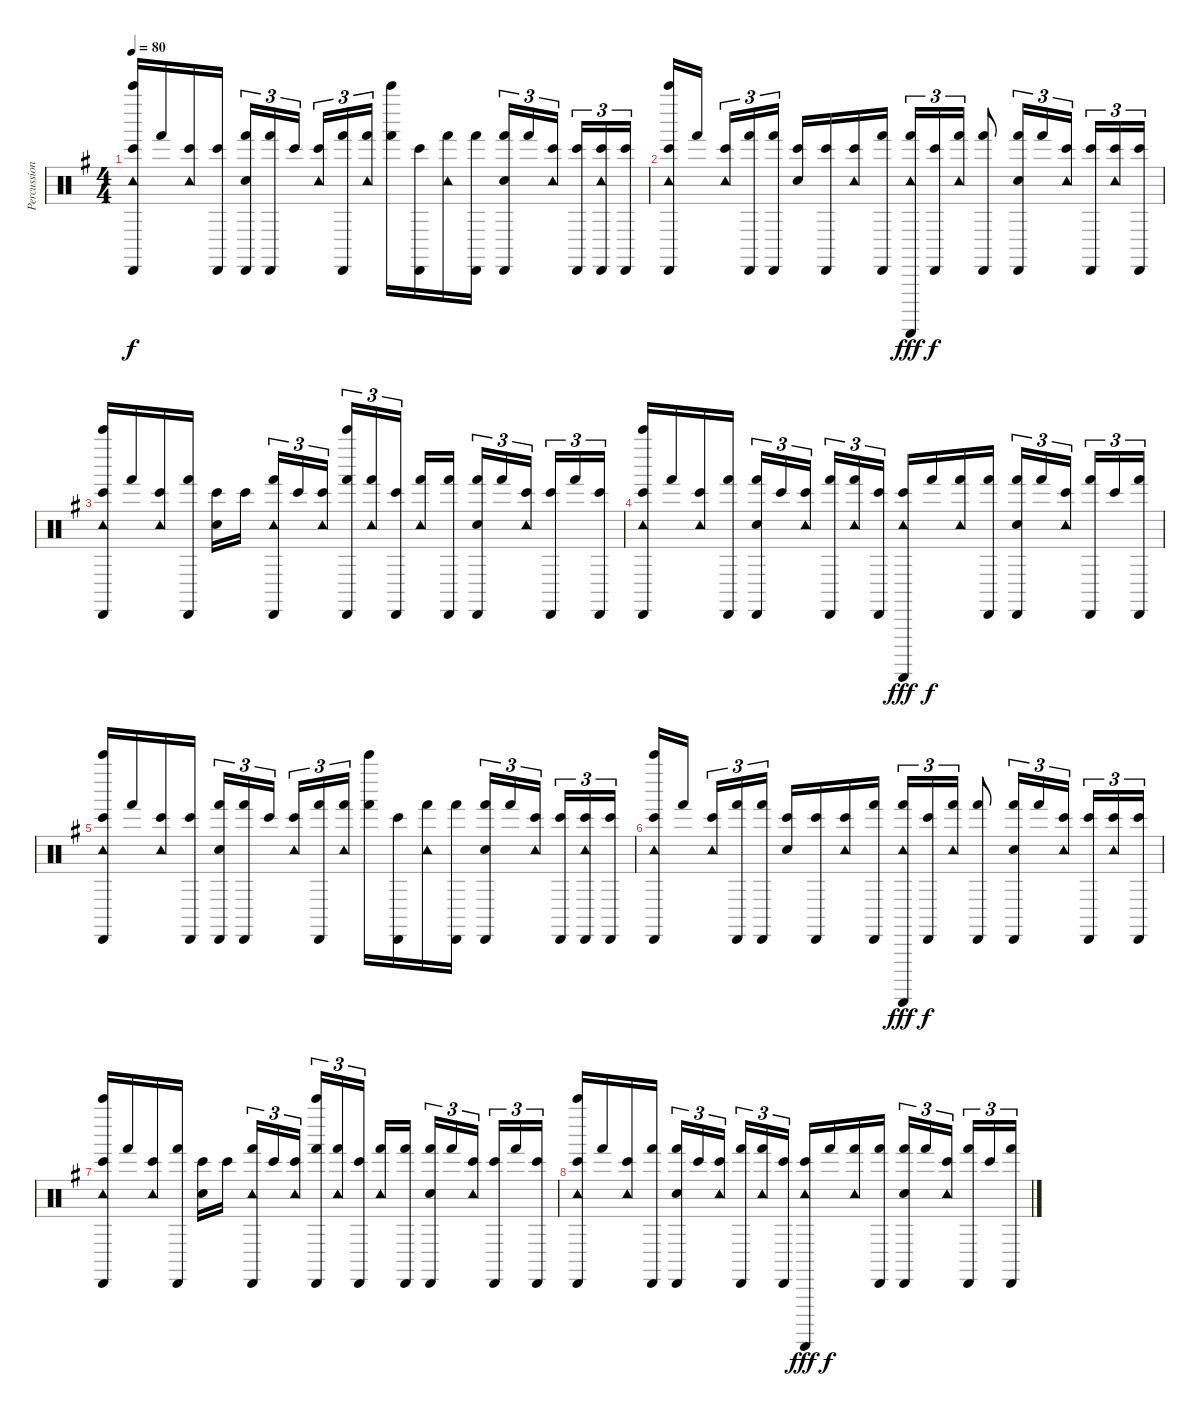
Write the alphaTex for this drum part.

\track ("Percussion" "Percussion") {instrument percussion}
\staff {score}
\articulation defaults
\ts (4 4)
\tempo 80
\clef neutral
\ks g
("Cabasa (hit)" "Bell Tree (hit)" "Tambourine (hit)" "Bongo High (hit)").16{dy f} "Hand (hit)".16 ("Tambourine (hit)" "Bongo High (hit)").16 ("Cabasa (hit)" "Bongo High (hit)").16 ("Cabasa (hit)" "Hand Clap (hit)" "Hand (hit)").16{tu (3 2)} ("Cabasa (hit)" "Hand (hit)").16{tu (3 2)} "Bongo High (hit)".16{tu (3 2)} ("Tambourine (hit)" "Bongo High (hit)").16{tu (3 2)} ("Cabasa (hit)" "Hand (hit)").16{tu (3 2)} ("Tambourine (hit)" "Hand (hit)").16{tu (3 2)} ("Bell Tree (hit)" "Hand (hit)").16 ("Cabasa (hit)" "Bongo High (hit)").16 ("Tambourine (hit)" "Hand (hit)").16 ("Cabasa (hit)" "Hand (hit)").16 ("Cabasa (hit)" "Hand Clap (hit)" "Hand (hit)").16{tu (3 2)} "Hand (hit)".16{tu (3 2)} ("Tambourine (hit)" "Bongo High (hit)").16{tu (3 2)} ("Cabasa (hit)" "Bongo High (hit)").16{tu (3 2)} ("Cabasa (hit)" "Tambourine (hit)" "Bongo High (hit)").16{tu (3 2)} ("Cabasa (hit)" "Bongo High (hit)").16{tu (3 2)} |
("Cabasa (hit)" "Bell Tree (hit)" "Tambourine (hit)" "Bongo High (hit)").16 "Hand (hit)".16 ("Tambourine (hit)" "Bongo High (hit)").16{tu (3 2)} ("Cabasa (hit)" "Hand (hit)").16{tu (3 2)} ("Cabasa (hit)" "Hand (hit)").16{tu (3 2)} ("Hand Clap (hit)" "Bongo High (hit)").16 ("Cabasa (hit)" "Bongo High (hit)").16 ("Tambourine (hit)" "Bongo High (hit)").16 ("Cabasa (hit)" "Hand (hit)").16 ("Guiro (scrap-return)" "Tambourine (hit)" "Hand (hit)").16{tu (3 2) dy fff} ("Cabasa (hit)" "Bongo High (hit)").16{tu (3 2) dy f} ("Tambourine (hit)" "Hand (hit)").16{tu (3 2)} ("Cabasa (hit)" "Hand (hit)").8 ("Cabasa (hit)" "Hand Clap (hit)" "Hand (hit)").16{tu (3 2)} "Hand (hit)".16{tu (3 2)} ("Tambourine (hit)" "Bongo High (hit)").16{tu (3 2)} ("Cabasa (hit)" "Bongo High (hit)").16{tu (3 2)} ("Tambourine (hit)" "Bongo High (hit)").16{tu (3 2)} ("Cabasa (hit)" "Bongo High (hit)").16{tu (3 2)} |
("Cabasa (hit)" "Bell Tree (hit)" "Tambourine (hit)" "Bongo High (hit)").16 "Hand (hit)".16 ("Tambourine (hit)" "Bongo High (hit)").16 ("Cabasa (hit)" "Hand (hit)").16 ("Hand Clap (hit)" "Bongo High (hit)").16 "Bongo High (hit)".16 ("Cabasa (hit)" "Tambourine (hit)" "Hand (hit)").16{tu (3 2)} "Bongo High (hit)".16{tu (3 2)} ("Tambourine (hit)" "Bongo High (hit)").16{tu (3 2)} ("Cabasa (hit)" "Bell Tree (hit)" "Hand (hit)").16{tu (3 2)} ("Tambourine (hit)" "Hand (hit)").16{tu (3 2)} ("Cabasa (hit)" "Bongo High (hit)").16{tu (3 2)} ("Tambourine (hit)" "Hand (hit)").16 ("Cabasa (hit)" "Hand (hit)").16 ("Cabasa (hit)" "Hand Clap (hit)" "Hand (hit)").16{tu (3 2)} "Hand (hit)".16{tu (3 2)} ("Tambourine (hit)" "Bongo High (hit)").16{tu (3 2)} ("Cabasa (hit)" "Bongo High (hit)").16{tu (3 2)} "Hand (hit)".16{tu (3 2)} ("Cabasa (hit)" "Bongo High (hit)").16{tu (3 2)} |
("Cabasa (hit)" "Bell Tree (hit)" "Tambourine (hit)" "Bongo High (hit)").16 "Hand (hit)".16 ("Tambourine (hit)" "Bongo High (hit)").16 ("Cabasa (hit)" "Hand (hit)").16 ("Cabasa (hit)" "Hand Clap (hit)" "Hand (hit)").16{tu (3 2)} "Bongo High (hit)".16{tu (3 2)} ("Tambourine (hit)" "Bongo High (hit)").16{tu (3 2)} ("Cabasa (hit)" "Hand (hit)").16{tu (3 2)} ("Tambourine (hit)" "Hand (hit)").16{tu (3 2)} ("Cabasa (hit)" "Bongo High (hit)").16{tu (3 2)} ("Guiro (scrap-return)" "Tambourine (hit)" "Bongo High (hit)").16{dy fff} "Hand (hit)".16{dy f} ("Tambourine (hit)" "Hand (hit)").16 ("Cabasa (hit)" "Hand (hit)").16 ("Cabasa (hit)" "Hand Clap (hit)" "Hand (hit)").16{tu (3 2)} "Hand (hit)".16{tu (3 2)} ("Tambourine (hit)" "Bongo High (hit)").16{tu (3 2)} ("Cabasa (hit)" "Hand (hit)").16{tu (3 2)} "Bongo High (hit)".16{tu (3 2)} ("Cabasa (hit)" "Hand (hit)").16{tu (3 2)} |
("Cabasa (hit)" "Bell Tree (hit)" "Tambourine (hit)" "Bongo High (hit)").16 "Hand (hit)".16 ("Tambourine (hit)" "Bongo High (hit)").16 ("Cabasa (hit)" "Bongo High (hit)").16 ("Cabasa (hit)" "Hand Clap (hit)" "Hand (hit)").16{tu (3 2)} ("Cabasa (hit)" "Hand (hit)").16{tu (3 2)} "Bongo High (hit)".16{tu (3 2)} ("Tambourine (hit)" "Bongo High (hit)").16{tu (3 2)} ("Cabasa (hit)" "Hand (hit)").16{tu (3 2)} ("Tambourine (hit)" "Hand (hit)").16{tu (3 2)} ("Bell Tree (hit)" "Hand (hit)").16 ("Cabasa (hit)" "Bongo High (hit)").16 ("Tambourine (hit)" "Hand (hit)").16 ("Cabasa (hit)" "Hand (hit)").16 ("Cabasa (hit)" "Hand Clap (hit)" "Hand (hit)").16{tu (3 2)} "Hand (hit)".16{tu (3 2)} ("Tambourine (hit)" "Bongo High (hit)").16{tu (3 2)} ("Cabasa (hit)" "Bongo High (hit)").16{tu (3 2)} ("Cabasa (hit)" "Tambourine (hit)" "Bongo High (hit)").16{tu (3 2)} ("Cabasa (hit)" "Bongo High (hit)").16{tu (3 2)} |
("Cabasa (hit)" "Bell Tree (hit)" "Tambourine (hit)" "Bongo High (hit)").16 "Hand (hit)".16 ("Tambourine (hit)" "Bongo High (hit)").16{tu (3 2)} ("Cabasa (hit)" "Hand (hit)").16{tu (3 2)} ("Cabasa (hit)" "Hand (hit)").16{tu (3 2)} ("Hand Clap (hit)" "Bongo High (hit)").16 ("Cabasa (hit)" "Bongo High (hit)").16 ("Tambourine (hit)" "Bongo High (hit)").16 ("Cabasa (hit)" "Hand (hit)").16 ("Guiro (scrap-return)" "Tambourine (hit)" "Hand (hit)").16{tu (3 2) dy fff} ("Cabasa (hit)" "Bongo High (hit)").16{tu (3 2) dy f} ("Tambourine (hit)" "Hand (hit)").16{tu (3 2)} ("Cabasa (hit)" "Hand (hit)").8 ("Cabasa (hit)" "Hand Clap (hit)" "Hand (hit)").16{tu (3 2)} "Hand (hit)".16{tu (3 2)} ("Tambourine (hit)" "Bongo High (hit)").16{tu (3 2)} ("Cabasa (hit)" "Bongo High (hit)").16{tu (3 2)} ("Tambourine (hit)" "Bongo High (hit)").16{tu (3 2)} ("Cabasa (hit)" "Bongo High (hit)").16{tu (3 2)} |
("Cabasa (hit)" "Bell Tree (hit)" "Tambourine (hit)" "Bongo High (hit)").16 "Hand (hit)".16 ("Tambourine (hit)" "Bongo High (hit)").16 ("Cabasa (hit)" "Hand (hit)").16 ("Hand Clap (hit)" "Bongo High (hit)").16 "Bongo High (hit)".16 ("Cabasa (hit)" "Tambourine (hit)" "Hand (hit)").16{tu (3 2)} "Bongo High (hit)".16{tu (3 2)} ("Tambourine (hit)" "Bongo High (hit)").16{tu (3 2)} ("Cabasa (hit)" "Bell Tree (hit)" "Hand (hit)").16{tu (3 2)} ("Tambourine (hit)" "Hand (hit)").16{tu (3 2)} ("Cabasa (hit)" "Bongo High (hit)").16{tu (3 2)} ("Tambourine (hit)" "Hand (hit)").16 ("Cabasa (hit)" "Hand (hit)").16 ("Cabasa (hit)" "Hand Clap (hit)" "Hand (hit)").16{tu (3 2)} "Hand (hit)".16{tu (3 2)} ("Tambourine (hit)" "Bongo High (hit)").16{tu (3 2)} ("Cabasa (hit)" "Bongo High (hit)").16{tu (3 2)} "Hand (hit)".16{tu (3 2)} ("Cabasa (hit)" "Bongo High (hit)").16{tu (3 2)} |
("Cabasa (hit)" "Bell Tree (hit)" "Tambourine (hit)" "Bongo High (hit)").16 "Hand (hit)".16 ("Tambourine (hit)" "Bongo High (hit)").16 ("Cabasa (hit)" "Hand (hit)").16 ("Cabasa (hit)" "Hand Clap (hit)" "Hand (hit)").16{tu (3 2)} "Bongo High (hit)".16{tu (3 2)} ("Tambourine (hit)" "Bongo High (hit)").16{tu (3 2)} ("Cabasa (hit)" "Hand (hit)").16{tu (3 2)} ("Tambourine (hit)" "Hand (hit)").16{tu (3 2)} ("Cabasa (hit)" "Bongo High (hit)").16{tu (3 2)} ("Guiro (scrap-return)" "Tambourine (hit)" "Bongo High (hit)").16{dy fff} "Hand (hit)".16{dy f} ("Tambourine (hit)" "Hand (hit)").16 ("Cabasa (hit)" "Hand (hit)").16 ("Cabasa (hit)" "Hand Clap (hit)" "Hand (hit)").16{tu (3 2)} "Hand (hit)".16{tu (3 2)} ("Tambourine (hit)" "Bongo High (hit)").16{tu (3 2)} ("Cabasa (hit)" "Hand (hit)").16{tu (3 2)} "Bongo High (hit)".16{tu (3 2)} ("Cabasa (hit)" "Hand (hit)").16{tu (3 2)}
